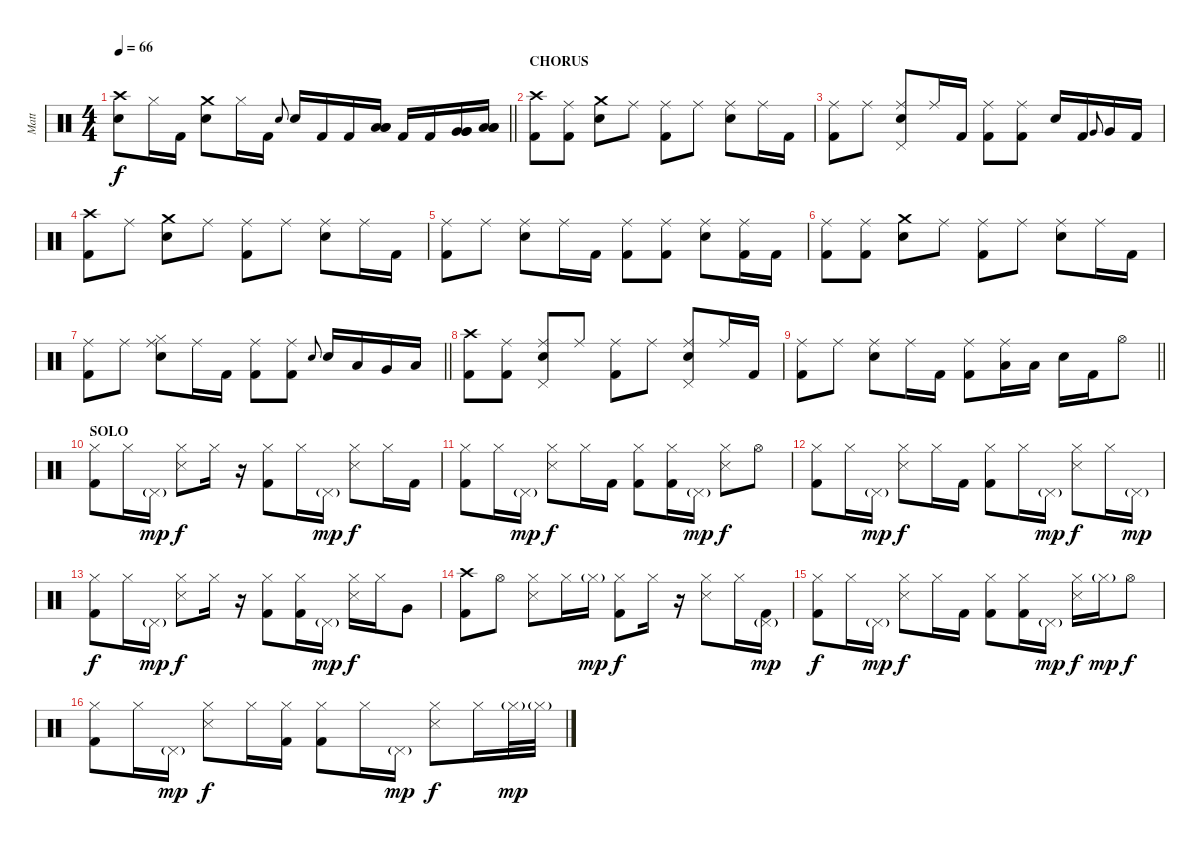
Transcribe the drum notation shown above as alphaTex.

\track ("Matt" "Matt") {instrument percussion}
\staff {score}
\articulation defaults
\ts (4 4)
\tempo 66
\clef neutral
\barLineRight lightlight
\ks c
("Crash high (hit)" "Electric Snare (hit)").8{dy f} "Hi-Hat (closed)".16 "Kick (hit) 2".16 ("Electric Snare (hit)" "Crash medium (hit)").8 "Hi-Hat (closed)".16 "Kick (hit) 2".16 "Snare (hit) 2".8{gr onbeat} "Electric Snare (hit)".16 "Kick (hit) 2".16 "Kick (hit) 2".16 ("Low Tom (hit)" "Low Tom (hit)" "Low Tom (hit)").16 "Kick (hit) 2".16 "Kick (hit) 2".16 ("Very Low Tom (hit)" "Very Low Tom (hit)" "Very Low Tom (hit)").16 ("Low Floor Tom (hit)" "Low Floor Tom (hit)" "Low Floor Tom (hit)").16 |
\section ("" "CHORUS")
("Crash high (hit)" "Kick (hit) 2").8 ("Kick (hit) 2" "Ride (middle)").8 ("Crash medium (hit)" "Electric Snare (hit)").8 "Ride (middle)".8 ("Kick (hit) 2" "Ride (middle)").8 "Ride (middle)".8 ("Electric Snare (hit)" "Ride (middle)").8 "Ride (middle)".16 "Kick (hit) 2".16 |
("Kick (hit) 2" "Ride (middle)").8 "Ride (middle)".8 ("Electric Snare (hit)" "Pedal Hi-Hat (hit)" "Ride (middle)").8 "Ride (middle)".16 "Kick (hit) 2".16 ("Kick (hit) 2" "Ride (middle)").8 ("Kick (hit) 2" "Ride (middle)").8 "Electric Snare (hit)".16 "Kick (hit) 2".16 "Very Low Tom (hit)".8{gr onbeat} "Very Low Tom (hit)".16 "Kick (hit) 2".16 |
("Crash high (hit)" "Kick (hit) 2").8 "Ride (middle)".8 ("Crash medium (hit)" "Electric Snare (hit)").8 "Ride (middle)".8 ("Kick (hit) 2" "Ride (middle)").8 "Ride (middle)".8 ("Electric Snare (hit)" "Ride (middle)").8 "Ride (middle)".16 "Kick (hit) 2".16 |
("Kick (hit) 2" "Ride (middle)").8 "Ride (middle)".8 ("Electric Snare (hit)" "Ride (middle)").8 "Ride (middle)".16 "Kick (hit) 2".16 ("Kick (hit) 2" "Ride (middle)").8 ("Kick (hit) 2" "Ride (middle)").8 ("Electric Snare (hit)" "Ride (middle)").8 ("Kick (hit) 2" "Ride (middle)").16 "Kick (hit) 2".16 |
("Kick (hit) 2" "Ride (middle)").8 ("Kick (hit) 2" "Ride (middle)").8 ("Crash medium (hit)" "Electric Snare (hit)").8 "Ride (middle)".8 ("Kick (hit) 2" "Ride (middle)").8 "Ride (middle)".8 ("Electric Snare (hit)" "Ride (middle)").8 "Ride (middle)".16 "Kick (hit) 2".16 |
\barLineRight lightlight
("Kick (hit) 2" "Ride (middle)").8 "Ride (middle)".8 ("Electric Snare (hit)" "Hi-Hat (closed)" "Ride (middle)").8 "Ride (middle)".16 "Kick (hit) 2".16 ("Kick (hit) 2" "Ride (middle)").8 ("Kick (hit) 2" "Ride (middle)").8 "Snare (hit) 2".8{gr onbeat} "Electric Snare (hit)".16 "Low Tom (hit)".16 "Very Low Tom (hit)".16 "Low Floor Tom (hit)".16 |
("Crash high (hit)" "Kick (hit) 2").8 ("Kick (hit) 2" "Ride (middle)").8 ("Electric Snare (hit)" "Pedal Hi-Hat (hit)" "Ride (middle)").8 "Ride (middle)".8 ("Kick (hit) 2" "Ride (middle)").8 "Ride (middle)".8 ("Electric Snare (hit)" "Pedal Hi-Hat (hit)" "Ride (middle)").8 "Ride (middle)".16 "Kick (hit) 2".16 |
\barLineRight lightlight
("Kick (hit) 2" "Ride (middle)").8 "Ride (middle)".8 ("Electric Snare (hit)" "Ride (middle)").8 "Ride (middle)".16 "Kick (hit) 2".16 ("Kick (hit) 2" "Ride (middle)").8 ("Low Tom (hit)" "Ride (middle)").16 "Low Tom (hit)".16 "Electric Snare (hit)".16 "Kick (hit) 2".16 "Hi-Hat (open)".8 |
\section ("" "SOLO")
("Kick (hit) 2" "Hi-Hat (closed)").8 "Hi-Hat (closed)".16 "Pedal Hi-Hat (hit)"{g}.16{dy mp} ("Metronome (hit)" "Hi-Hat (closed)").8{dy f} "Hi-Hat (closed)".16 r.16 ("Kick (hit) 2" "Hi-Hat (closed)").8 "Hi-Hat (closed)".16 "Pedal Hi-Hat (hit)"{g}.16{dy mp} ("Metronome (hit)" "Hi-Hat (closed)").8{dy f} "Hi-Hat (closed)".16 "Kick (hit) 2".16 |
("Kick (hit) 2" "Hi-Hat (closed)").8 "Hi-Hat (closed)".16 "Pedal Hi-Hat (hit)"{g}.16{dy mp} ("Metronome (hit)" "Hi-Hat (closed)").8{dy f} "Hi-Hat (closed)".16 "Kick (hit) 2".16 ("Kick (hit) 2" "Hi-Hat (closed)").8 ("Kick (hit) 2" "Hi-Hat (closed)").16 "Pedal Hi-Hat (hit)"{g}.16{dy mp} ("Metronome (hit)" "Hi-Hat (closed)").8{dy f} "Hi-Hat (open)".8 |
("Kick (hit) 2" "Hi-Hat (closed)").8 "Hi-Hat (closed)".16 "Pedal Hi-Hat (hit)"{g}.16{dy mp} ("Metronome (hit)" "Hi-Hat (closed)").8{dy f} "Hi-Hat (closed)".16 "Kick (hit) 2".16 ("Kick (hit) 2" "Hi-Hat (closed)").8 "Hi-Hat (closed)".16 "Pedal Hi-Hat (hit)"{g}.16{dy mp} ("Metronome (hit)" "Hi-Hat (closed)").8{dy f} "Hi-Hat (closed)".16 "Pedal Hi-Hat (hit)"{g}.16{dy mp} |
("Kick (hit) 2" "Hi-Hat (closed)").8{dy f} "Hi-Hat (closed)".16 "Pedal Hi-Hat (hit)"{g}.16{dy mp} ("Metronome (hit)" "Hi-Hat (closed)").8{dy f} "Hi-Hat (closed)".16 r.16 ("Kick (hit) 2" "Hi-Hat (closed)").8 ("Kick (hit) 2" "Hi-Hat (closed)").16 "Pedal Hi-Hat (hit)"{g}.16{dy mp} ("Metronome (hit)" "Hi-Hat (closed)").16{dy f} "Hi-Hat (closed)".16 "Very Low Tom (hit)".8 |
("Crash high (hit)" "Kick (hit) 2").8 "Hi-Hat (open)".8 ("Metronome (hit)" "Hi-Hat (closed)").8 "Hi-Hat (closed)".16 "Hi-Hat (closed)"{g}.16{dy mp} ("Kick (hit) 2" "Hi-Hat (closed)").8{dy f} "Hi-Hat (closed)".16 r.16 ("Metronome (hit)" "Hi-Hat (closed)").8 "Hi-Hat (closed)".16 ("Kick (hit) 2" "Pedal Hi-Hat (hit)"{g}).16{dy mp} |
("Kick (hit) 2" "Hi-Hat (closed)").8{dy f} "Hi-Hat (closed)".16 "Pedal Hi-Hat (hit)"{g}.16{dy mp} ("Metronome (hit)" "Hi-Hat (closed)").8{dy f} "Hi-Hat (closed)".16 "Kick (hit) 2".16 ("Kick (hit) 2" "Hi-Hat (closed)").8 ("Kick (hit) 2" "Hi-Hat (closed)").16 "Pedal Hi-Hat (hit)"{g}.16{dy mp} ("Metronome (hit)" "Hi-Hat (closed)").16{dy f} "Hi-Hat (closed)"{g}.16{dy mp} "Hi-Hat (open)".8{dy f} |
("Kick (hit) 2" "Hi-Hat (closed)").8 "Hi-Hat (closed)".16 "Pedal Hi-Hat (hit)"{g}.16{dy mp} ("Metronome (hit)" "Hi-Hat (closed)").8{dy f} "Hi-Hat (closed)".16 ("Kick (hit) 2" "Hi-Hat (closed)").16 ("Kick (hit) 2" "Hi-Hat (closed)").8 "Hi-Hat (closed)".16 "Pedal Hi-Hat (hit)"{g}.16{dy mp} ("Metronome (hit)" "Hi-Hat (closed)").8{dy f} "Hi-Hat (closed)".16 "Hi-Hat (closed)"{g}.32{dy mp} "Hi-Hat (closed)"{g}.32
